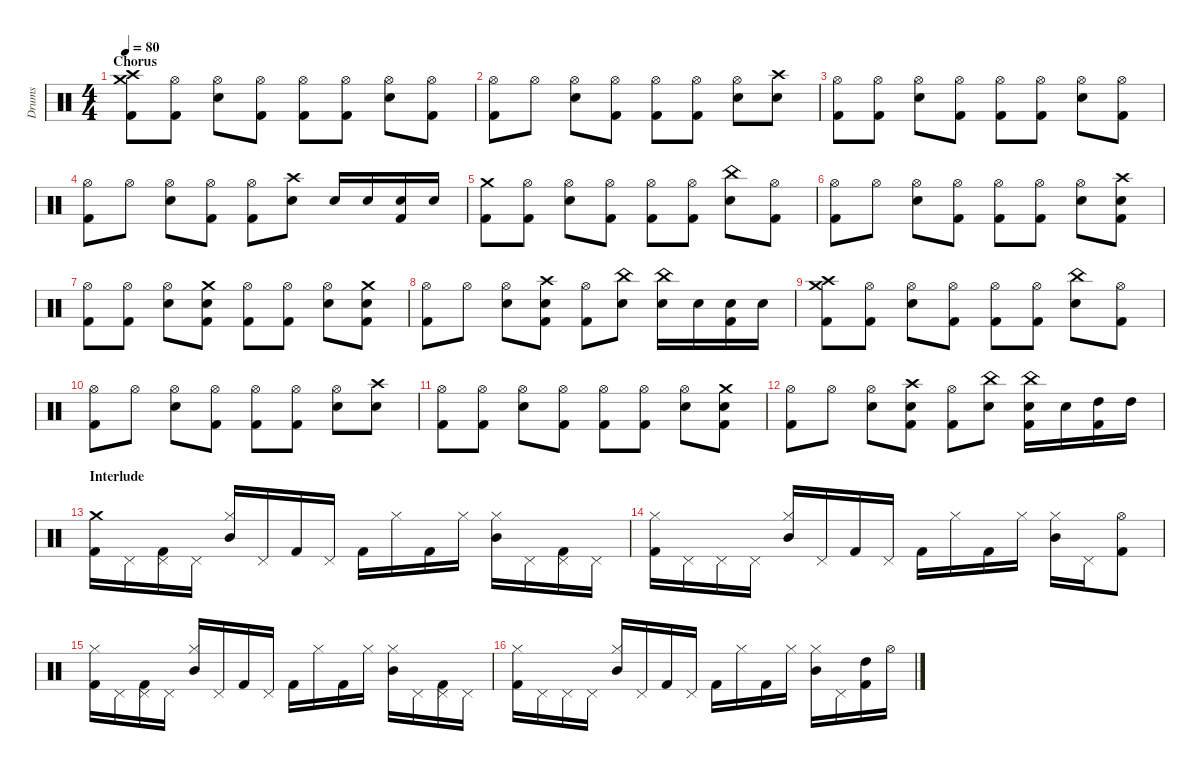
\hideDynamics
\bracketExtendMode nobrackets
\otherSystemsTrackNameOrientation horizontal
\track ("Drumkit" "Drums") {instrument percussion}
\staff {score}
\articulation defaults
\ts (4 4)
\section ("" "Chorus")
\tempo 80
\clef neutral
\ks c
("Kick (hit) 2" "Crash high (hit)" "Crash medium (hit)").8{dy f beam Down} ("Kick (hit) 2" "Hi-Hat (open)").8{beam Down} ("Snare (hit) 2" "Hi-Hat (open)").8{beam Down} ("Kick (hit) 2" "Hi-Hat (open)").8{beam Down} ("Kick (hit) 2" "Hi-Hat (open)").8{beam Down} ("Kick (hit) 2" "Hi-Hat (open)").8{beam Down} ("Snare (hit) 2" "Hi-Hat (open)").8{beam Down} ("Kick (hit) 2" "Hi-Hat (open)").8{beam Down} |
("Kick (hit) 2" "Hi-Hat (open)").8{beam Down} "Hi-Hat (open)".8{beam Down} ("Snare (hit) 2" "Hi-Hat (open)").8{beam Down} ("Kick (hit) 2" "Hi-Hat (open)").8{beam Down} ("Kick (hit) 2" "Hi-Hat (open)").8{beam Down} ("Kick (hit) 2" "Hi-Hat (open)").8{beam Down} ("Snare (hit) 2" "Hi-Hat (open)").8{beam Down} ("Snare (hit) 2" "Crash high (hit)").8{beam Down} |
("Kick (hit) 2" "Hi-Hat (open)").8{beam Down} ("Kick (hit) 2" "Hi-Hat (open)").8{beam Down} ("Snare (hit) 2" "Hi-Hat (open)").8{beam Down} ("Kick (hit) 2" "Hi-Hat (open)").8{beam Down} ("Kick (hit) 2" "Hi-Hat (open)").8{beam Down} ("Kick (hit) 2" "Hi-Hat (open)").8{beam Down} ("Snare (hit) 2" "Hi-Hat (open)").8{beam Down} ("Kick (hit) 2" "Hi-Hat (open)").8{beam Down} |
("Kick (hit) 2" "Hi-Hat (open)").8{beam Down} "Hi-Hat (open)".8{beam Down} ("Snare (hit) 2" "Hi-Hat (open)").8{beam Down} ("Kick (hit) 2" "Hi-Hat (open)").8{beam Down} ("Kick (hit) 2" "Hi-Hat (open)").8{beam Down} ("Snare (hit) 2" "Crash high (hit)").8{beam Down} "Snare (hit) 2".16{beam Up} "Snare (hit) 2".16{beam Up} ("Kick (hit) 2" "Snare (hit) 2").16{beam Up} "Snare (hit) 2".16{beam Up} |
("Kick (hit) 2" "Crash medium (hit)").8{beam Down} ("Kick (hit) 2" "Hi-Hat (open)").8{beam Down} ("Snare (hit) 2" "Hi-Hat (open)").8{beam Down} ("Kick (hit) 2" "Hi-Hat (open)").8{beam Down} ("Kick (hit) 2" "Hi-Hat (open)").8{beam Down} ("Kick (hit) 2" "Hi-Hat (open)").8{beam Down} ("Snare (hit) 2" "China (hit)").8{beam Down} ("Kick (hit) 2" "Hi-Hat (open)").8{beam Down} |
("Kick (hit) 2" "Hi-Hat (open)").8{beam Down} "Hi-Hat (open)".8{beam Down} ("Snare (hit) 2" "Hi-Hat (open)").8{beam Down} ("Kick (hit) 2" "Hi-Hat (open)").8{beam Down} ("Kick (hit) 2" "Hi-Hat (open)").8{beam Down} ("Kick (hit) 2" "Hi-Hat (open)").8{beam Down} ("Snare (hit) 2" "Hi-Hat (open)").8{beam Down} ("Snare (hit) 2" "Crash high (hit)" "Kick (hit) 2").8{beam Down} |
("Kick (hit) 2" "Hi-Hat (open)").8{beam Down} ("Kick (hit) 2" "Hi-Hat (open)").8{beam Down} ("Snare (hit) 2" "Hi-Hat (open)").8{beam Down} ("Snare (hit) 2" "Crash medium (hit)" "Kick (hit) 2").8{beam Down} ("Kick (hit) 2" "Hi-Hat (open)").8{beam Down} ("Kick (hit) 2" "Hi-Hat (open)").8{beam Down} ("Snare (hit) 2" "Hi-Hat (open)").8{beam Down} ("Kick (hit) 2" "Crash medium (hit)" "Snare (hit) 2").8{beam Down} |
("Kick (hit) 2" "Hi-Hat (open)").8{beam Down} "Hi-Hat (open)".8{beam Down} ("Snare (hit) 2" "Hi-Hat (open)").8{beam Down} ("Snare (hit) 2" "Crash high (hit)" "Kick (hit) 2").8{beam Down} ("Kick (hit) 2" "Hi-Hat (open)").8{beam Down} ("Snare (hit) 2" "China (hit)").8{beam Down} ("China (hit)" "Snare (hit) 2").16{beam Down} "Snare (hit) 2".16{beam Down} ("Kick (hit) 2" "Snare (hit) 2").16{beam Down} "Snare (hit) 2".16{beam Down} |
("Kick (hit) 2" "Crash high (hit)" "Crash medium (hit)").8{beam Down} ("Kick (hit) 2" "Hi-Hat (open)").8{beam Down} ("Snare (hit) 2" "Hi-Hat (open)").8{beam Down} ("Kick (hit) 2" "Hi-Hat (open)").8{beam Down} ("Kick (hit) 2" "Hi-Hat (open)").8{beam Down} ("Kick (hit) 2" "Hi-Hat (open)").8{beam Down} ("Snare (hit) 2" "China (hit)").8{beam Down} ("Kick (hit) 2" "Hi-Hat (open)").8{beam Down} |
("Kick (hit) 2" "Hi-Hat (open)").8{beam Down} "Hi-Hat (open)".8{beam Down} ("Snare (hit) 2" "Hi-Hat (open)").8{beam Down} ("Kick (hit) 2" "Hi-Hat (open)").8{beam Down} ("Kick (hit) 2" "Hi-Hat (open)").8{beam Down} ("Kick (hit) 2" "Hi-Hat (open)").8{beam Down} ("Snare (hit) 2" "Hi-Hat (open)").8{beam Down} ("Snare (hit) 2" "Crash high (hit)").8{beam Down} |
("Kick (hit) 2" "Hi-Hat (open)").8{beam Down} ("Kick (hit) 2" "Hi-Hat (open)").8{beam Down} ("Snare (hit) 2" "Hi-Hat (open)").8{beam Down} ("Kick (hit) 2" "Hi-Hat (open)").8{beam Down} ("Kick (hit) 2" "Hi-Hat (open)").8{beam Down} ("Kick (hit) 2" "Hi-Hat (open)").8{beam Down} ("Snare (hit) 2" "Hi-Hat (open)").8{beam Down} ("Kick (hit) 2" "Crash medium (hit)" "Snare (hit) 2").8{beam Down} |
("Kick (hit) 2" "Hi-Hat (open)").8{beam Down} "Hi-Hat (open)".8{beam Down} ("Snare (hit) 2" "Hi-Hat (open)").8{beam Down} ("Kick (hit) 2" "Crash high (hit)" "Snare (hit) 2").8{beam Down} ("Kick (hit) 2" "Hi-Hat (open)").8{beam Down} ("Snare (hit) 2" "China (hit)").8{beam Down} ("China (hit)" "Snare (hit) 2" "Kick (hit) 2").16{beam Down} "Snare (hit) 2".16{beam Down} ("Kick (hit) 2" "High Tom (hit)").16{beam Down} "High Tom (hit)".16{beam Down} |
\section ("" "Interlude")
("Crash medium (hit)" "Kick (hit) 2").16{beam Down} "Pedal Hi-Hat (hit)".16{beam Down} ("Pedal Hi-Hat (hit)" "Kick (hit) 2").16{beam Down} "Pedal Hi-Hat (hit)".16{beam Down} ("Hi-Hat (closed)" "Mid Tom (hit)").16{beam Up} "Pedal Hi-Hat (hit)".16{beam Up} "Kick (hit) 2".16{beam Up} "Pedal Hi-Hat (hit)".16{beam Up} "Kick (hit) 2".16{beam Down} "Hi-Hat (closed)".16{beam Down} "Kick (hit) 2".16{beam Down} "Hi-Hat (closed)".16{beam Down} ("Hi-Hat (closed)" "Mid Tom (hit)").16{beam Down} "Pedal Hi-Hat (hit)".16{beam Down} ("Pedal Hi-Hat (hit)" "Kick (hit) 2").16{beam Down} "Pedal Hi-Hat (hit)".16{beam Down} |
("Hi-Hat (closed)" "Kick (hit) 2").16{beam Down} "Pedal Hi-Hat (hit)".16{beam Down} "Pedal Hi-Hat (hit)".16{beam Down} "Pedal Hi-Hat (hit)".16{beam Down} ("Hi-Hat (closed)" "Mid Tom (hit)").16{beam Up} "Pedal Hi-Hat (hit)".16{beam Up} "Kick (hit) 2".16{beam Up} "Pedal Hi-Hat (hit)".16{beam Up} "Kick (hit) 2".16{beam Down} "Hi-Hat (closed)".16{beam Down} "Kick (hit) 2".16{beam Down} "Hi-Hat (closed)".16{beam Down} ("Hi-Hat (closed)" "Mid Tom (hit)").16{beam Down} "Pedal Hi-Hat (hit)".16{beam Down} ("Hi-Hat (open)" "Kick (hit) 2").8{beam Down} |
("Hi-Hat (closed)" "Kick (hit) 2").16{beam Down} "Pedal Hi-Hat (hit)".16{beam Down} ("Pedal Hi-Hat (hit)" "Kick (hit) 2").16{beam Down} "Pedal Hi-Hat (hit)".16{beam Down} ("Hi-Hat (closed)" "Mid Tom (hit)").16{beam Up} "Pedal Hi-Hat (hit)".16{beam Up} "Kick (hit) 2".16{beam Up} "Pedal Hi-Hat (hit)".16{beam Up} "Kick (hit) 2".16{beam Down} "Hi-Hat (closed)".16{beam Down} "Kick (hit) 2".16{beam Down} "Hi-Hat (closed)".16{beam Down} ("Hi-Hat (closed)" "Mid Tom (hit)").16{beam Down} "Pedal Hi-Hat (hit)".16{beam Down} ("Pedal Hi-Hat (hit)" "Kick (hit) 2").16{beam Down} "Pedal Hi-Hat (hit)".16{beam Down} |
("Hi-Hat (closed)" "Kick (hit) 2").16{beam Down} "Pedal Hi-Hat (hit)".16{beam Down} "Pedal Hi-Hat (hit)".16{beam Down} "Pedal Hi-Hat (hit)".16{beam Down} ("Hi-Hat (closed)" "Mid Tom (hit)").16{beam Up} "Pedal Hi-Hat (hit)".16{beam Up} "Kick (hit) 2".16{beam Up} "Pedal Hi-Hat (hit)".16{beam Up} "Kick (hit) 2".16{beam Down} "Hi-Hat (closed)".16{beam Down} "Kick (hit) 2".16{beam Down} "Hi-Hat (closed)".16{beam Down} ("Hi-Hat (closed)" "Mid Tom (hit)").16{beam Down} "Pedal Hi-Hat (hit)".16{beam Down} ("Kick (hit) 2" "High Tom (hit)").16{beam Down} "Hi-Hat (open)".16{beam Down}
